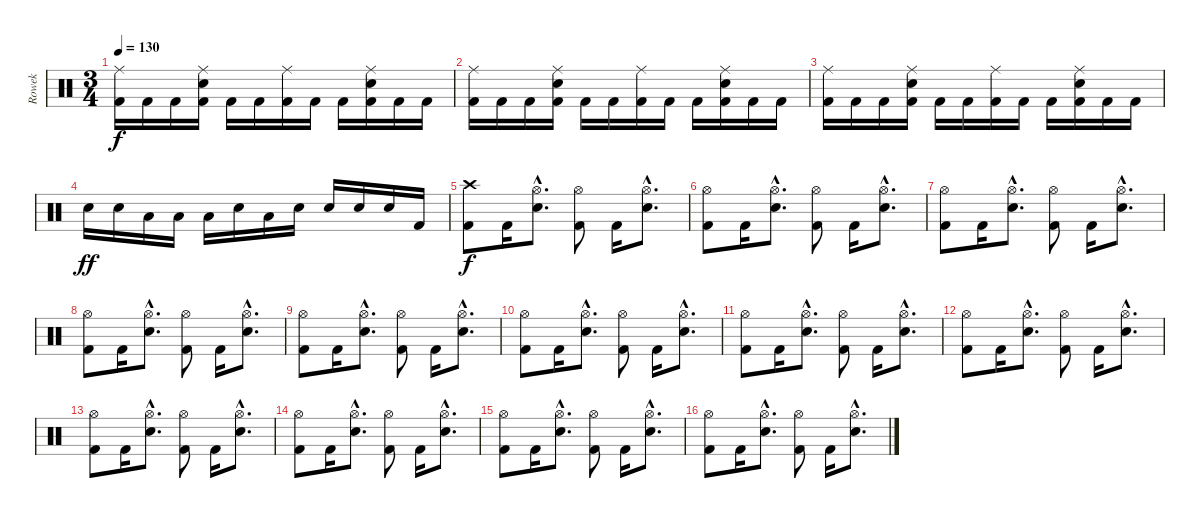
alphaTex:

\track ("Rowek" "Rowek") {instrument percussion}
\staff {score}
\articulation defaults
\ts (3 4)
\tempo 130
\clef neutral
\ks c
("Ride (middle)" "Kick (hit) 2").16{dy f} "Kick (hit) 2".16 "Kick (hit) 2".16 ("Ride (middle)" "Snare (hit) 2" "Kick (hit) 2").16 "Kick (hit) 2".16 "Kick (hit) 2".16 ("Ride (middle)" "Kick (hit) 2").16 "Kick (hit) 2".16 "Kick (hit) 2".16 ("Ride (middle)" "Snare (hit) 2" "Kick (hit) 2").16 "Kick (hit) 2".16 "Kick (hit) 2".16 |
("Ride (middle)" "Kick (hit) 2").16 "Kick (hit) 2".16 "Kick (hit) 2".16 ("Ride (middle)" "Snare (hit) 2" "Kick (hit) 2").16 "Kick (hit) 2".16 "Kick (hit) 2".16 ("Ride (middle)" "Kick (hit) 2").16 "Kick (hit) 2".16 "Kick (hit) 2".16 ("Ride (middle)" "Snare (hit) 2" "Kick (hit) 2").16 "Kick (hit) 2".16 "Kick (hit) 2".16 |
("Ride (middle)" "Kick (hit) 2").16 "Kick (hit) 2".16 "Kick (hit) 2".16 ("Ride (middle)" "Snare (hit) 2" "Kick (hit) 2").16 "Kick (hit) 2".16 "Kick (hit) 2".16 ("Ride (middle)" "Kick (hit) 2").16 "Kick (hit) 2".16 "Kick (hit) 2".16 ("Ride (middle)" "Snare (hit) 2" "Kick (hit) 2").16 "Kick (hit) 2".16 "Kick (hit) 2".16 |
"Snare (hit) 2".16{dy ff} "Electric Snare (hit)".16 "Low Floor Tom (hit)".16 "Low Floor Tom (hit)".16 "Low Floor Tom (hit)".16 "Electric Snare (hit)".16 "Low Floor Tom (hit)".16 "Electric Snare (hit)".16 "Snare (hit) 2".16 "Electric Snare (hit)".16 "Snare (hit) 2".16 "Kick (hit) 2".16 |
("Crash high (hit)" "Kick (hit) 2").8{dy f} "Kick (hit) 2".16 ("Hi-Hat (open)"{hac} "Snare (hit) 2"{hac}).8{d} ("Hi-Hat (open)" "Kick (hit) 2").8 "Kick (hit) 2".16 ("Hi-Hat (open)"{hac} "Snare (hit) 2"{hac}).8{d} |
("Hi-Hat (open)" "Kick (hit) 2").8 "Kick (hit) 2".16 ("Hi-Hat (open)"{hac} "Snare (hit) 2"{hac}).8{d} ("Hi-Hat (open)" "Kick (hit) 2").8 "Kick (hit) 2".16 ("Hi-Hat (open)"{hac} "Snare (hit) 2"{hac}).8{d} |
("Hi-Hat (open)" "Kick (hit) 2").8 "Kick (hit) 2".16 ("Hi-Hat (open)"{hac} "Snare (hit) 2"{hac}).8{d} ("Hi-Hat (open)" "Kick (hit) 2").8 "Kick (hit) 2".16 ("Hi-Hat (open)"{hac} "Snare (hit) 2"{hac}).8{d} |
("Hi-Hat (open)" "Kick (hit) 2").8 "Kick (hit) 2".16 ("Hi-Hat (open)"{hac} "Snare (hit) 2"{hac}).8{d} ("Hi-Hat (open)" "Kick (hit) 2").8 "Kick (hit) 2".16 ("Hi-Hat (open)"{hac} "Snare (hit) 2"{hac}).8{d} |
("Hi-Hat (open)" "Kick (hit) 2").8 "Kick (hit) 2".16 ("Hi-Hat (open)"{hac} "Snare (hit) 2"{hac}).8{d} ("Hi-Hat (open)" "Kick (hit) 2").8 "Kick (hit) 2".16 ("Hi-Hat (open)"{hac} "Snare (hit) 2"{hac}).8{d} |
("Hi-Hat (open)" "Kick (hit) 2").8 "Kick (hit) 2".16 ("Hi-Hat (open)"{hac} "Snare (hit) 2"{hac}).8{d} ("Hi-Hat (open)" "Kick (hit) 2").8 "Kick (hit) 2".16 ("Hi-Hat (open)"{hac} "Snare (hit) 2"{hac}).8{d} |
("Hi-Hat (open)" "Kick (hit) 2").8 "Kick (hit) 2".16 ("Hi-Hat (open)"{hac} "Snare (hit) 2"{hac}).8{d} ("Hi-Hat (open)" "Kick (hit) 2").8 "Kick (hit) 2".16 ("Hi-Hat (open)"{hac} "Snare (hit) 2"{hac}).8{d} |
("Hi-Hat (open)" "Kick (hit) 2").8 "Kick (hit) 2".16 ("Hi-Hat (open)"{hac} "Snare (hit) 2"{hac}).8{d} ("Hi-Hat (open)" "Kick (hit) 2").8 "Kick (hit) 2".16 ("Hi-Hat (open)"{hac} "Snare (hit) 2"{hac}).8{d} |
("Hi-Hat (open)" "Kick (hit) 2").8 "Kick (hit) 2".16 ("Hi-Hat (open)"{hac} "Snare (hit) 2"{hac}).8{d} ("Hi-Hat (open)" "Kick (hit) 2").8 "Kick (hit) 2".16 ("Hi-Hat (open)"{hac} "Snare (hit) 2"{hac}).8{d} |
("Hi-Hat (open)" "Kick (hit) 2").8 "Kick (hit) 2".16 ("Hi-Hat (open)"{hac} "Snare (hit) 2"{hac}).8{d} ("Hi-Hat (open)" "Kick (hit) 2").8 "Kick (hit) 2".16 ("Hi-Hat (open)"{hac} "Snare (hit) 2"{hac}).8{d} |
("Hi-Hat (open)" "Kick (hit) 2").8 "Kick (hit) 2".16 ("Hi-Hat (open)"{hac} "Snare (hit) 2"{hac}).8{d} ("Hi-Hat (open)" "Kick (hit) 2").8 "Kick (hit) 2".16 ("Hi-Hat (open)"{hac} "Snare (hit) 2"{hac}).8{d} |
("Hi-Hat (open)" "Kick (hit) 2").8 "Kick (hit) 2".16 ("Hi-Hat (open)"{hac} "Snare (hit) 2"{hac}).8{d} ("Hi-Hat (open)" "Kick (hit) 2").8 "Kick (hit) 2".16 ("Hi-Hat (open)"{hac} "Snare (hit) 2"{hac}).8{d}
